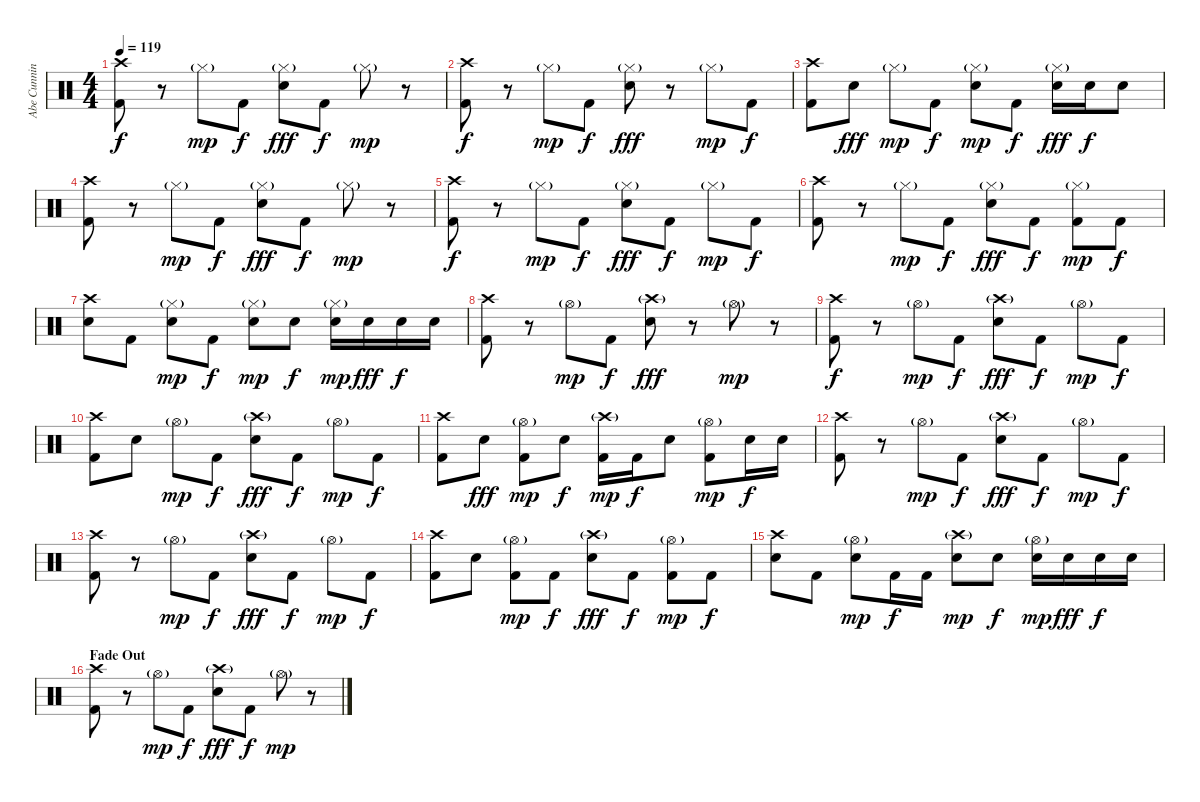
\track ("Abe Cunningham" "Abe Cunnin") {instrument percussion}
\staff {score}
\articulation defaults
\ts (4 4)
\tempo 119
\clef neutral
\ks c
("Crash high (hit)" "Kick (hit) 2").8{dy f} r.8 "Hi-Hat (closed)"{g}.8{dy mp} "Kick (hit) 2".8{dy f} ("Hi-Hat (closed)"{g} "Snare (hit) 2").8{dy fff} "Kick (hit) 2".8{dy f} "Hi-Hat (closed)"{g}.8{dy mp} r.8 |
("Crash high (hit)" "Kick (hit) 2").8{dy f} r.8 "Hi-Hat (closed)"{g}.8{dy mp} "Kick (hit) 2".8{dy f} ("Hi-Hat (closed)"{g} "Snare (hit) 2").8{dy fff} r.8 "Hi-Hat (closed)"{g}.8{dy mp} "Kick (hit) 2".8{dy f} |
("Crash high (hit)" "Kick (hit) 2").8 "Snare (hit) 2".8{dy fff} "Hi-Hat (closed)"{g}.8{dy mp} "Kick (hit) 2".8{dy f} ("Hi-Hat (closed)"{g} "Snare (hit) 2").8{dy mp} "Kick (hit) 2".8{dy f} ("Hi-Hat (closed)"{g} "Snare (hit) 2").16{dy fff} "Snare (hit) 2".16{dy f} "Snare (hit) 2".8 |
("Crash high (hit)" "Kick (hit) 2").8 r.8 "Hi-Hat (closed)"{g}.8{dy mp} "Kick (hit) 2".8{dy f} ("Hi-Hat (closed)"{g} "Snare (hit) 2").8{dy fff} "Kick (hit) 2".8{dy f} "Hi-Hat (closed)"{g}.8{dy mp} r.8 |
("Crash high (hit)" "Kick (hit) 2").8{dy f} r.8 "Hi-Hat (closed)"{g}.8{dy mp} "Kick (hit) 2".8{dy f} ("Hi-Hat (closed)"{g} "Snare (hit) 2").8{dy fff} "Kick (hit) 2".8{dy f} "Hi-Hat (closed)"{g}.8{dy mp} "Kick (hit) 2".8{dy f} |
("Crash high (hit)" "Kick (hit) 2").8 r.8 "Hi-Hat (closed)"{g}.8{dy mp} "Kick (hit) 2".8{dy f} ("Hi-Hat (closed)"{g} "Snare (hit) 2").8{dy fff} "Kick (hit) 2".8{dy f} ("Hi-Hat (closed)"{g} "Kick (hit) 2").8{dy mp} "Kick (hit) 2".8{dy f} |
("Crash high (hit)" "Snare (hit) 2").8 "Kick (hit) 2".8 ("Hi-Hat (closed)"{g} "Snare (hit) 2").8{dy mp} "Kick (hit) 2".8{dy f} ("Hi-Hat (closed)"{g} "Snare (hit) 2").8{dy mp} "Snare (hit) 2".8{dy f} ("Hi-Hat (closed)"{g} "Snare (hit) 2").16{dy mp} "Snare (hit) 2".16{dy fff} "Snare (hit) 2".16{dy f} "Snare (hit) 2".16 |
("Crash high (hit)" "Kick (hit) 2").8 r.8 "Hi-Hat (open)"{g}.8{dy mp} "Kick (hit) 2".8{dy f} ("Crash high (hit)"{g} "Snare (hit) 2").8{dy fff} r.8 "Hi-Hat (open)"{g}.8{dy mp} r.8 |
("Crash high (hit)" "Kick (hit) 2").8{dy f} r.8 "Hi-Hat (open)"{g}.8{dy mp} "Kick (hit) 2".8{dy f} ("Crash high (hit)"{g} "Snare (hit) 2").8{dy fff} "Kick (hit) 2".8{dy f} "Hi-Hat (open)"{g}.8{dy mp} "Kick (hit) 2".8{dy f} |
("Crash high (hit)" "Kick (hit) 2").8 "Snare (hit) 2".8 "Hi-Hat (open)"{g}.8{dy mp} "Kick (hit) 2".8{dy f} ("Crash high (hit)"{g} "Snare (hit) 2").8{dy fff} "Kick (hit) 2".8{dy f} "Hi-Hat (open)"{g}.8{dy mp} "Kick (hit) 2".8{dy f} |
("Crash high (hit)" "Kick (hit) 2").8 "Snare (hit) 2".8{dy fff} ("Hi-Hat (open)"{g} "Kick (hit) 2").8{dy mp} "Snare (hit) 2".8{dy f} ("Crash high (hit)"{g} "Kick (hit) 2").16{dy mp} "Kick (hit) 2".16{dy f} "Snare (hit) 2".8 ("Hi-Hat (open)"{g} "Kick (hit) 2").8{dy mp} "Snare (hit) 2".16{dy f} "Snare (hit) 2".16 |
("Crash high (hit)" "Kick (hit) 2").8 r.8 "Hi-Hat (open)"{g}.8{dy mp} "Kick (hit) 2".8{dy f} ("Crash high (hit)"{g} "Snare (hit) 2").8{dy fff} "Kick (hit) 2".8{dy f} "Hi-Hat (open)"{g}.8{dy mp} "Kick (hit) 2".8{dy f} |
("Crash high (hit)" "Kick (hit) 2").8 r.8 "Hi-Hat (open)"{g}.8{dy mp} "Kick (hit) 2".8{dy f} ("Crash high (hit)"{g} "Snare (hit) 2").8{dy fff} "Kick (hit) 2".8{dy f} "Hi-Hat (open)"{g}.8{dy mp} "Kick (hit) 2".8{dy f} |
("Crash high (hit)" "Kick (hit) 2").8 "Snare (hit) 2".8 ("Hi-Hat (open)"{g} "Kick (hit) 2").8{dy mp} "Kick (hit) 2".8{dy f} ("Crash high (hit)"{g} "Snare (hit) 2").8{dy fff} "Kick (hit) 2".8{dy f} ("Hi-Hat (open)"{g} "Kick (hit) 2").8{dy mp} "Kick (hit) 2".8{dy f} |
("Crash high (hit)" "Snare (hit) 2").8 "Kick (hit) 2".8 ("Hi-Hat (open)"{g} "Snare (hit) 2").8{dy mp} "Kick (hit) 2".16{dy f} "Kick (hit) 2".16 ("Crash high (hit)"{g} "Snare (hit) 2").8{dy mp} "Snare (hit) 2".8{dy f} ("Hi-Hat (open)"{g} "Snare (hit) 2").16{dy mp} "Snare (hit) 2".16{dy fff} "Snare (hit) 2".16{dy f} "Snare (hit) 2".16 |
\section ("" "Fade Out")
("Crash high (hit)" "Kick (hit) 2").8{volume 8} r.8 "Hi-Hat (open)"{g}.8{dy mp} "Kick (hit) 2".8{dy f} ("Crash high (hit)"{g} "Snare (hit) 2").8{dy fff} "Kick (hit) 2".8{dy f} "Hi-Hat (open)"{g}.8{dy mp} r.8
